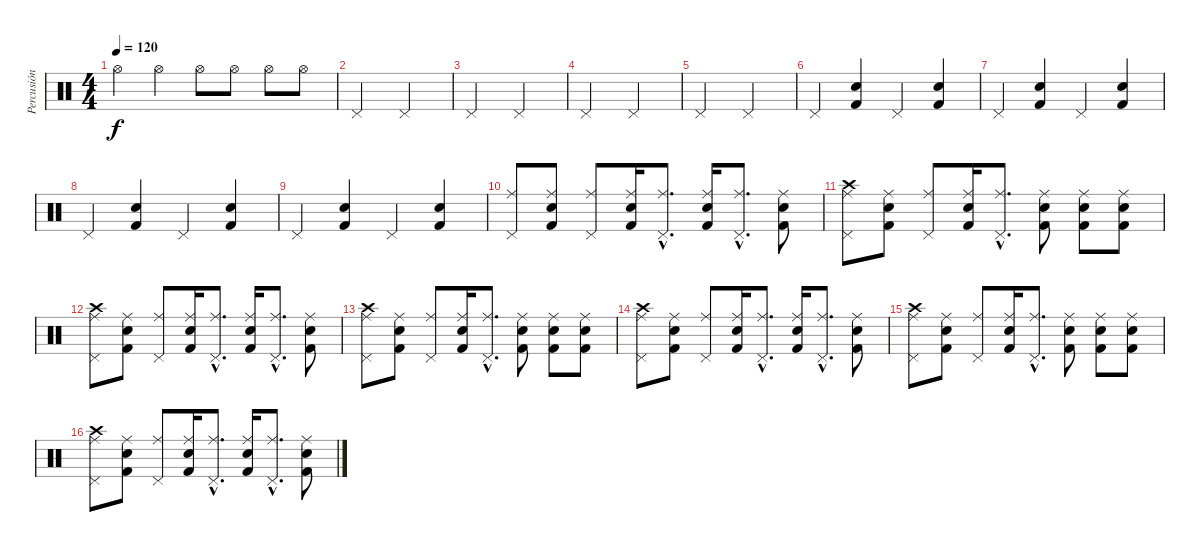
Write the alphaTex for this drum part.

\track ("Percusión" "Percusión") {instrument percussion}
\staff {score}
\articulation defaults
\ts (4 4)
\tempo 120
\clef neutral
\ks c "Hi-Hat (open)".4{dy f} "Hi-Hat (open)".4 "Hi-Hat (open)".8 "Hi-Hat (open)".8 "Hi-Hat (open)".8 "Hi-Hat (open)".8
|
"Pedal Hi-Hat (hit)".2 "Pedal Hi-Hat (hit)".2 |
"Pedal Hi-Hat (hit)".2 "Pedal Hi-Hat (hit)".2 |
"Pedal Hi-Hat (hit)".2 "Pedal Hi-Hat (hit)".2 |
"Pedal Hi-Hat (hit)".2 "Pedal Hi-Hat (hit)".2 |
"Pedal Hi-Hat (hit)".4 ("Kick (hit) 2" "Snare (hit) 2").4 "Pedal Hi-Hat (hit)".4 ("Kick (hit) 2" "Snare (hit) 2").4 |
"Pedal Hi-Hat (hit)".4 ("Kick (hit) 2" "Snare (hit) 2").4 "Pedal Hi-Hat (hit)".4 ("Kick (hit) 2" "Snare (hit) 2").4 |
"Pedal Hi-Hat (hit)".4 ("Kick (hit) 2" "Snare (hit) 2").4 "Pedal Hi-Hat (hit)".4 ("Kick (hit) 2" "Snare (hit) 2").4 |
"Pedal Hi-Hat (hit)".4 ("Kick (hit) 2" "Snare (hit) 2").4 "Pedal Hi-Hat (hit)".4 ("Kick (hit) 2" "Snare (hit) 2").4 |
("Ride (middle)" "Pedal Hi-Hat (hit)").8 ("Ride (middle)" "Kick (hit) 2" "Snare (hit) 2").8 ("Ride (middle)" "Pedal Hi-Hat (hit)").8 ("Ride (middle)" "Kick (hit) 2" "Snare (hit) 2").16 ("Ride (middle)"{hac} "Pedal Hi-Hat (hit)"{hac}).8{d} ("Ride (middle)" "Kick (hit) 2" "Snare (hit) 2").16 ("Ride (middle)"{hac} "Pedal Hi-Hat (hit)"{hac}).8{d} ("Ride (middle)" "Kick (hit) 2" "Snare (hit) 2").8 |
("Crash high (hit)" "Ride (middle)" "Pedal Hi-Hat (hit)").8 ("Ride (middle)" "Kick (hit) 2" "Snare (hit) 2").8 ("Ride (middle)" "Pedal Hi-Hat (hit)").8 ("Ride (middle)" "Kick (hit) 2" "Snare (hit) 2").16 ("Ride (middle)"{hac} "Pedal Hi-Hat (hit)"{hac}).8{d} ("Ride (middle)" "Kick (hit) 2" "Snare (hit) 2").8 ("Ride (middle)" "Kick (hit) 2" "Snare (hit) 2").8 ("Ride (middle)" "Kick (hit) 2" "Snare (hit) 2").8 |
("Crash high (hit)" "Ride (middle)" "Pedal Hi-Hat (hit)").8 ("Ride (middle)" "Kick (hit) 2" "Snare (hit) 2").8 ("Ride (middle)" "Pedal Hi-Hat (hit)").8 ("Ride (middle)" "Kick (hit) 2" "Snare (hit) 2").16 ("Ride (middle)"{hac} "Pedal Hi-Hat (hit)"{hac}).8{d} ("Ride (middle)" "Kick (hit) 2" "Snare (hit) 2").16 ("Ride (middle)"{hac} "Pedal Hi-Hat (hit)"{hac}).8{d} ("Ride (middle)" "Kick (hit) 2" "Snare (hit) 2").8 |
("Crash high (hit)" "Ride (middle)" "Pedal Hi-Hat (hit)").8 ("Ride (middle)" "Kick (hit) 2" "Snare (hit) 2").8 ("Ride (middle)" "Pedal Hi-Hat (hit)").8 ("Ride (middle)" "Kick (hit) 2" "Snare (hit) 2").16 ("Ride (middle)"{hac} "Pedal Hi-Hat (hit)"{hac}).8{d} ("Ride (middle)" "Kick (hit) 2" "Snare (hit) 2").8 ("Ride (middle)" "Kick (hit) 2" "Snare (hit) 2").8 ("Ride (middle)" "Kick (hit) 2" "Snare (hit) 2").8 |
("Crash high (hit)" "Ride (middle)" "Pedal Hi-Hat (hit)").8 ("Ride (middle)" "Kick (hit) 2" "Snare (hit) 2").8 ("Ride (middle)" "Pedal Hi-Hat (hit)").8 ("Ride (middle)" "Kick (hit) 2" "Snare (hit) 2").16 ("Ride (middle)"{hac} "Pedal Hi-Hat (hit)"{hac}).8{d} ("Ride (middle)" "Kick (hit) 2" "Snare (hit) 2").16 ("Ride (middle)"{hac} "Pedal Hi-Hat (hit)"{hac}).8{d} ("Ride (middle)" "Kick (hit) 2" "Snare (hit) 2").8 |
("Crash high (hit)" "Ride (middle)" "Pedal Hi-Hat (hit)").8 ("Ride (middle)" "Kick (hit) 2" "Snare (hit) 2").8 ("Ride (middle)" "Pedal Hi-Hat (hit)").8 ("Ride (middle)" "Kick (hit) 2" "Snare (hit) 2").16 ("Ride (middle)"{hac} "Pedal Hi-Hat (hit)"{hac}).8{d} ("Ride (middle)" "Kick (hit) 2" "Snare (hit) 2").8 ("Ride (middle)" "Kick (hit) 2" "Snare (hit) 2").8 ("Ride (middle)" "Kick (hit) 2" "Snare (hit) 2").8 |
("Crash high (hit)" "Ride (middle)" "Pedal Hi-Hat (hit)").8 ("Ride (middle)" "Kick (hit) 2" "Snare (hit) 2").8 ("Ride (middle)" "Pedal Hi-Hat (hit)").8 ("Ride (middle)" "Kick (hit) 2" "Snare (hit) 2").16 ("Ride (middle)"{hac} "Pedal Hi-Hat (hit)"{hac}).8{d} ("Ride (middle)" "Kick (hit) 2" "Snare (hit) 2").16 ("Ride (middle)"{hac} "Pedal Hi-Hat (hit)"{hac}).8{d} ("Ride (middle)" "Kick (hit) 2" "Snare (hit) 2").8
